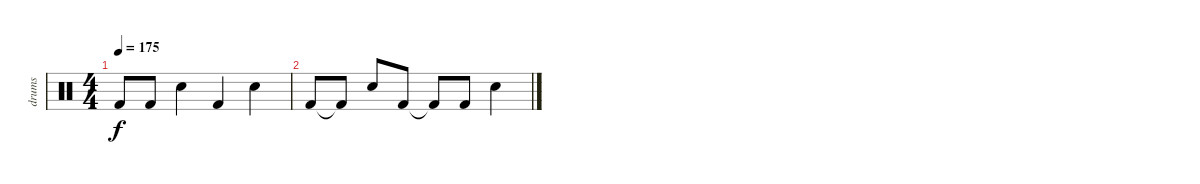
\track ("drums" "drums") {instrument percussion}
\staff {score}
\articulation defaults
\ts (4 4)
\tempo 175
\clef neutral
\ks c "Kick (hit) 2".8{dy f} "Kick (hit) 2".8 "Snare (hit) 2".4 "Kick (hit) 2".4 "Snare (hit) 2".4
|
"Kick (hit) 2".8 "Kick (hit) 2"{t}.8 "Snare (hit) 2".8 "Kick (hit) 2".8 "Kick (hit) 2"{t}.8 "Kick (hit) 2".8 "Snare (hit) 2".4
